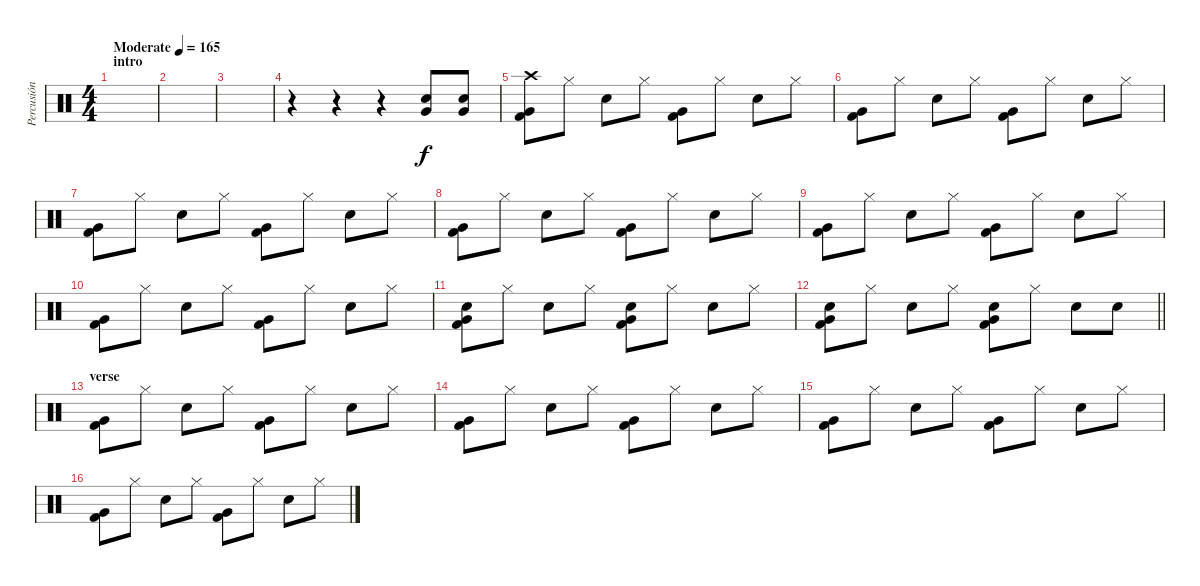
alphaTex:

\track ("Percusión" "Percusión") {instrument percussion}
\staff {score}
\articulation defaults
\ts (4 4)
\section ("" "intro")
\tempo (165 "Moderate")
\clef neutral
\ks c
|
|
|
r.4 r.4 r.4 ("Very Low Tom (hit)" "Electric Snare (hit)").8 ("Very Low Tom (hit)" "Electric Snare (hit)").8 |
("Crash high (hit)" "Kick (hit) 2" "Very Low Tom (hit)").8 "Hi-Hat (closed)".8 "Electric Snare (hit)".8 "Hi-Hat (closed)".8 ("Kick (hit) 2" "Very Low Tom (hit)").8 "Hi-Hat (closed)".8 "Electric Snare (hit)".8 "Hi-Hat (closed)".8 |
("Kick (hit) 2" "Very Low Tom (hit)").8 "Hi-Hat (closed)".8 "Electric Snare (hit)".8 "Hi-Hat (closed)".8 ("Kick (hit) 2" "Very Low Tom (hit)").8 "Hi-Hat (closed)".8 "Electric Snare (hit)".8 "Hi-Hat (closed)".8 |
("Kick (hit) 2" "Very Low Tom (hit)").8 "Hi-Hat (closed)".8 "Electric Snare (hit)".8 "Hi-Hat (closed)".8 ("Kick (hit) 2" "Very Low Tom (hit)").8 "Hi-Hat (closed)".8 "Electric Snare (hit)".8 "Hi-Hat (closed)".8 |
("Kick (hit) 2" "Very Low Tom (hit)").8 "Hi-Hat (closed)".8 "Electric Snare (hit)".8 "Hi-Hat (closed)".8 ("Kick (hit) 2" "Very Low Tom (hit)").8 "Hi-Hat (closed)".8 "Electric Snare (hit)".8 "Hi-Hat (closed)".8 |
("Kick (hit) 2" "Very Low Tom (hit)").8 "Hi-Hat (closed)".8 "Electric Snare (hit)".8 "Hi-Hat (closed)".8 ("Kick (hit) 2" "Very Low Tom (hit)").8 "Hi-Hat (closed)".8 "Electric Snare (hit)".8 "Hi-Hat (closed)".8 |
("Kick (hit) 2" "Very Low Tom (hit)").8 "Hi-Hat (closed)".8 "Electric Snare (hit)".8 "Hi-Hat (closed)".8 ("Kick (hit) 2" "Very Low Tom (hit)").8 "Hi-Hat (closed)".8 "Electric Snare (hit)".8 "Hi-Hat (closed)".8 |
("Electric Snare (hit)" "Kick (hit) 2" "Very Low Tom (hit)").8 "Hi-Hat (closed)".8 "Electric Snare (hit)".8 "Hi-Hat (closed)".8 ("Electric Snare (hit)" "Kick (hit) 2" "Very Low Tom (hit)").8 "Hi-Hat (closed)".8 "Electric Snare (hit)".8 "Hi-Hat (closed)".8 |
\barLineRight lightlight
("Electric Snare (hit)" "Kick (hit) 2" "Very Low Tom (hit)").8 "Hi-Hat (closed)".8 "Electric Snare (hit)".8 "Hi-Hat (closed)".8 ("Electric Snare (hit)" "Kick (hit) 2" "Very Low Tom (hit)").8 "Hi-Hat (closed)".8 "Electric Snare (hit)".8 "Electric Snare (hit)".8 |
\section ("" "verse")
("Kick (hit) 2" "Very Low Tom (hit)").8 "Hi-Hat (closed)".8 "Electric Snare (hit)".8 "Hi-Hat (closed)".8 ("Kick (hit) 2" "Very Low Tom (hit)").8 "Hi-Hat (closed)".8 "Electric Snare (hit)".8 "Hi-Hat (closed)".8 |
("Kick (hit) 2" "Very Low Tom (hit)").8 "Hi-Hat (closed)".8 "Electric Snare (hit)".8 "Hi-Hat (closed)".8 ("Kick (hit) 2" "Very Low Tom (hit)").8 "Hi-Hat (closed)".8 "Electric Snare (hit)".8 "Hi-Hat (closed)".8 |
("Kick (hit) 2" "Very Low Tom (hit)").8 "Hi-Hat (closed)".8 "Electric Snare (hit)".8 "Hi-Hat (closed)".8 ("Kick (hit) 2" "Very Low Tom (hit)").8 "Hi-Hat (closed)".8 "Electric Snare (hit)".8 "Hi-Hat (closed)".8 |
("Kick (hit) 2" "Very Low Tom (hit)").8 "Hi-Hat (closed)".8 "Electric Snare (hit)".8 "Hi-Hat (closed)".8 ("Kick (hit) 2" "Very Low Tom (hit)").8 "Hi-Hat (closed)".8 "Electric Snare (hit)".8 "Hi-Hat (closed)".8
